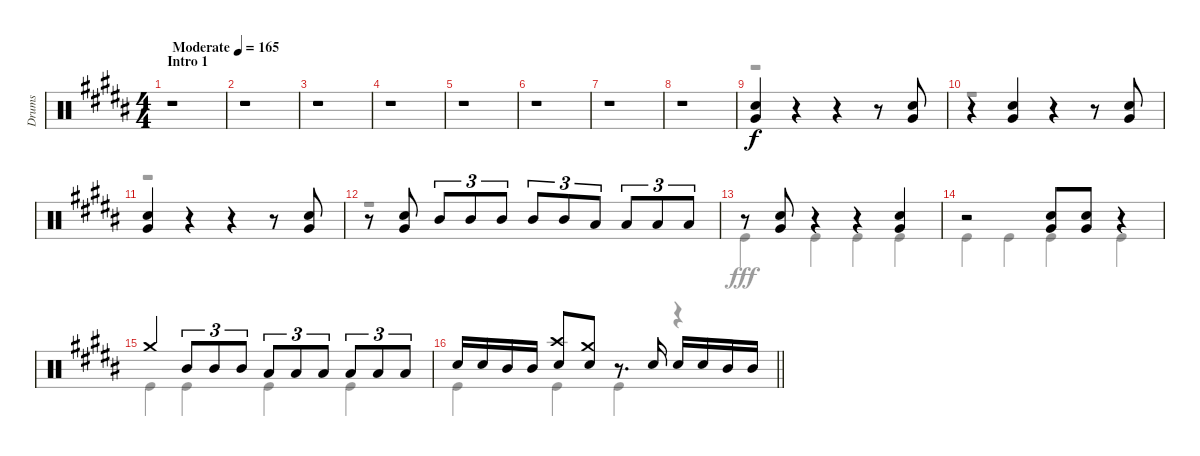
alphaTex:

\track ("Drums" "Drums") {instrument percussion}
\staff {score}
\articulation defaults
\voice
\ts (4 4)
\section ("" "Intro 1")
\tempo (165 "Moderate")
\clef neutral
\ks b
r.1{dy f} |
r.1 |
r.1 |
r.1 |
r.1 |
r.1 |
r.1 |
r.1 |
("Snare (hit) 2" "Very Low Tom (hit)").4 r.4 r.4 r.8 ("Snare (hit) 2" "Very Low Tom (hit)").8 |
r.4 ("Snare (hit) 2" "Very Low Tom (hit)").4 r.4 r.8 ("Snare (hit) 2" "Very Low Tom (hit)").8 |
("Snare (hit) 2" "Very Low Tom (hit)").4 r.4 r.4 r.8 ("Snare (hit) 2" "Very Low Tom (hit)").8 |
r.8 ("Snare (hit) 2" "Very Low Tom (hit)").8 "Mid Tom (hit)".8{tu (3 2)} "Mid Tom (hit)".8{tu (3 2)} "Mid Tom (hit)".8{tu (3 2)} "Mid Tom (hit)".8{tu (3 2)} "Mid Tom (hit)".8{tu (3 2)} "Low Tom (hit)".8{tu (3 2)} "Low Tom (hit)".8{tu (3 2)} "Low Tom (hit)".8{tu (3 2)} "Low Tom (hit)".8{tu (3 2)} |
r.8 ("Snare (hit) 2" "Very Low Tom (hit)").8 r.4 r.4 ("Snare (hit) 2" "Very Low Tom (hit)").4 |
r.2 ("Snare (hit) 2" "Very Low Tom (hit)").8 ("Snare (hit) 2" "Very Low Tom (hit)").8 r.4 |
"Crash medium (hit)".4 "Mid Tom (hit)".8{tu (3 2)} "Mid Tom (hit)".8{tu (3 2)} "Mid Tom (hit)".8{tu (3 2)} "Low Tom (hit)".8{tu (3 2)} "Low Tom (hit)".8{tu (3 2)} "Low Tom (hit)".8{tu (3 2)} "Low Tom (hit)".8{tu (3 2)} "Low Tom (hit)".8{tu (3 2)} "Low Tom (hit)".8{tu (3 2)} |
\barLineRight lightlight "Snare (hit) 2".16 "Snare (hit) 2".16 "Mid Tom (hit)".16 "Mid Tom (hit)".16
("Crash high (hit)" "Snare (hit) 2").8 ("Crash medium (hit)" "Snare (hit) 2").8 r.8{d} "Snare (hit) 2".16 "Snare (hit) 2".16 "Snare (hit) 2".16 "Mid Tom (hit)".16 "Mid Tom (hit)".16
\voice
\clef neutral
\ottava regular
\simile none
\ks b
r.1{dy fff} |
r.1 |
r.1 |
r.1 |
r.1 |
r.1 |
r.1 |
r.1 |
r.1 |
r.1 |
r.1 |
r.1 |
"Kick (hit)".4 "Kick (hit)".4 "Kick (hit)".4 "Kick (hit)".4 |
"Kick (hit)".4 "Kick (hit)".4 "Kick (hit)".4 "Kick (hit)".4 |
"Kick (hit)".4 "Kick (hit)".4 "Kick (hit)".4 "Kick (hit)".4 |
\barLineRight lightlight "Kick (hit)".4 "Kick (hit)".4 "Kick (hit)".4
r.4
